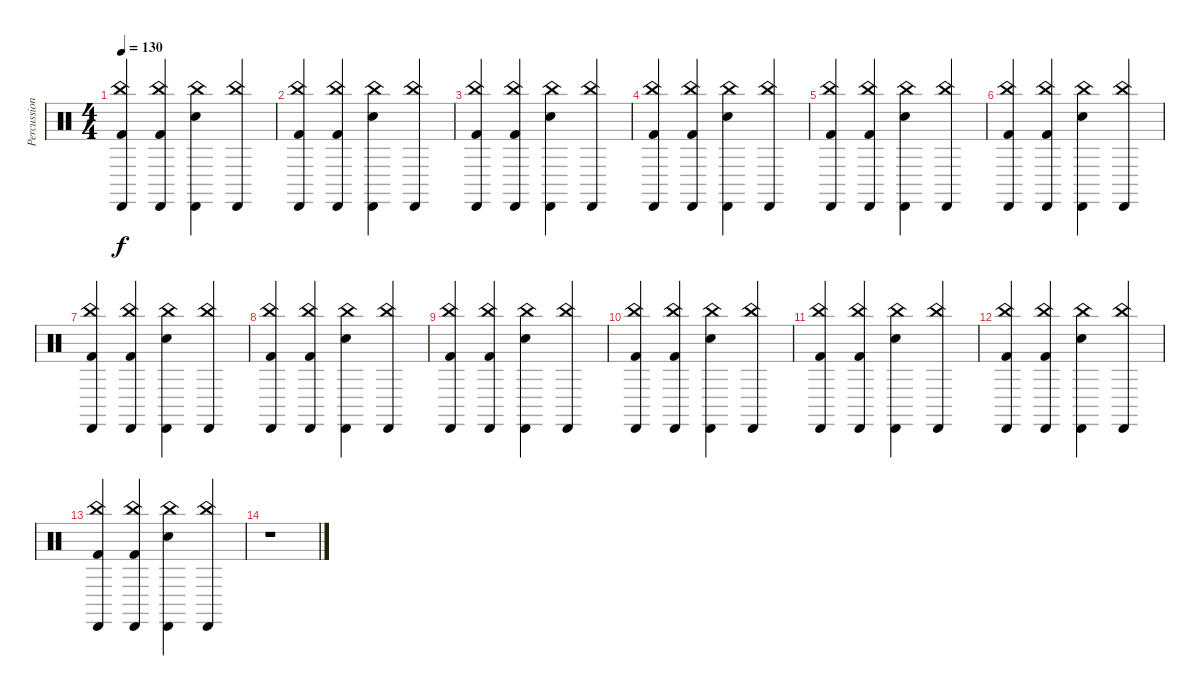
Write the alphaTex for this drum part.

\track ("Percussion" "Percussion") {instrument percussion}
\staff {score}
\articulation defaults
\ts (4 4)
\tempo 130
\clef neutral
\ks c
("Kick (hit) 2" "China (hit)" "Cabasa (hit)").4{dy f} ("Kick (hit) 2" "China (hit)" "Cabasa (hit)").4 ("Snare (hit) 2" "China (hit)" "Cabasa (hit)").4 ("China (hit)" "Cabasa (hit)").4 |
("Kick (hit) 2" "China (hit)" "Cabasa (hit)").4 ("Kick (hit) 2" "China (hit)" "Cabasa (hit)").4 ("Snare (hit) 2" "China (hit)" "Cabasa (hit)").4 ("China (hit)" "Cabasa (hit)").4 |
("Kick (hit) 2" "China (hit)" "Cabasa (hit)").4 ("Kick (hit) 2" "China (hit)" "Cabasa (hit)").4 ("Snare (hit) 2" "China (hit)" "Cabasa (hit)").4 ("China (hit)" "Cabasa (hit)").4 |
("Kick (hit) 2" "China (hit)" "Cabasa (hit)").4 ("Kick (hit) 2" "China (hit)" "Cabasa (hit)").4 ("Snare (hit) 2" "China (hit)" "Cabasa (hit)").4 ("China (hit)" "Cabasa (hit)").4 |
("Kick (hit) 2" "China (hit)" "Cabasa (hit)").4 ("Kick (hit) 2" "China (hit)" "Cabasa (hit)").4 ("Snare (hit) 2" "China (hit)" "Cabasa (hit)").4 ("China (hit)" "Cabasa (hit)").4 |
("Kick (hit) 2" "China (hit)" "Cabasa (hit)").4 ("Kick (hit) 2" "China (hit)" "Cabasa (hit)").4 ("Snare (hit) 2" "China (hit)" "Cabasa (hit)").4 ("China (hit)" "Cabasa (hit)").4 |
("Kick (hit) 2" "China (hit)" "Cabasa (hit)").4 ("Kick (hit) 2" "China (hit)" "Cabasa (hit)").4 ("Snare (hit) 2" "China (hit)" "Cabasa (hit)").4 ("China (hit)" "Cabasa (hit)").4 |
("Kick (hit) 2" "China (hit)" "Cabasa (hit)").4 ("Kick (hit) 2" "China (hit)" "Cabasa (hit)").4 ("Snare (hit) 2" "China (hit)" "Cabasa (hit)").4 ("China (hit)" "Cabasa (hit)").4 |
("Kick (hit) 2" "China (hit)" "Cabasa (hit)").4 ("Kick (hit) 2" "China (hit)" "Cabasa (hit)").4 ("Snare (hit) 2" "China (hit)" "Cabasa (hit)").4 ("China (hit)" "Cabasa (hit)").4 |
("Kick (hit) 2" "China (hit)" "Cabasa (hit)").4 ("Kick (hit) 2" "China (hit)" "Cabasa (hit)").4 ("Snare (hit) 2" "China (hit)" "Cabasa (hit)").4 ("China (hit)" "Cabasa (hit)").4 |
("Kick (hit) 2" "China (hit)" "Cabasa (hit)").4 ("Kick (hit) 2" "China (hit)" "Cabasa (hit)").4 ("Snare (hit) 2" "China (hit)" "Cabasa (hit)").4 ("China (hit)" "Cabasa (hit)").4 |
("Kick (hit) 2" "China (hit)" "Cabasa (hit)").4 ("Kick (hit) 2" "China (hit)" "Cabasa (hit)").4 ("Snare (hit) 2" "China (hit)" "Cabasa (hit)").4 ("China (hit)" "Cabasa (hit)").4 |
("Kick (hit) 2" "China (hit)" "Cabasa (hit)").4 ("Kick (hit) 2" "China (hit)" "Cabasa (hit)").4 ("Snare (hit) 2" "China (hit)" "Cabasa (hit)").4 ("China (hit)" "Cabasa (hit)").4 |
r.1
